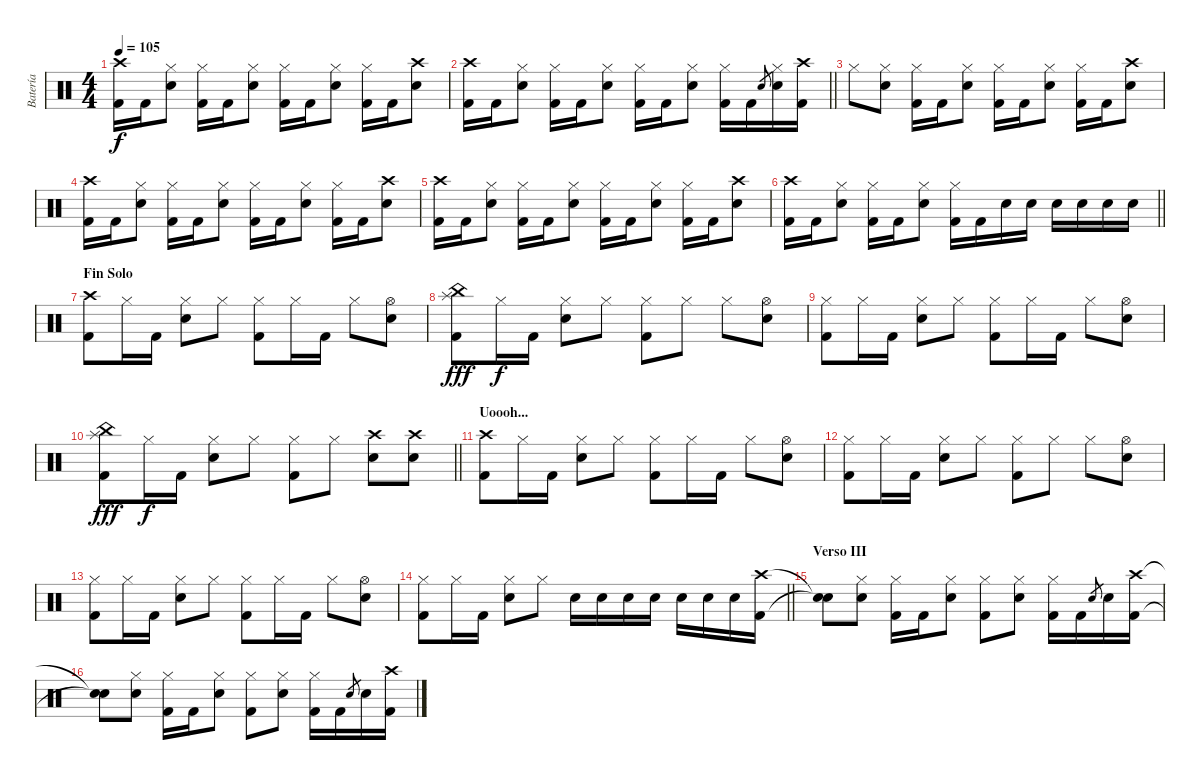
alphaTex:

\track ("Batería" "Batería") {instrument percussion}
\staff {score}
\articulation defaults
\ts (4 4)
\tempo 105
\clef neutral
\ks c
("Crash high (hit)" "Kick (hit) 2").16{dy f} "Kick (hit) 2".16 ("Hi-Hat (closed)" "Snare (hit) 2").8 ("Hi-Hat (closed)" "Kick (hit) 2").16 "Kick (hit) 2".16 ("Hi-Hat (closed)" "Snare (hit) 2").8 ("Hi-Hat (closed)" "Kick (hit) 2").16 "Kick (hit) 2".16 ("Hi-Hat (closed)" "Snare (hit) 2").8 ("Hi-Hat (closed)" "Kick (hit) 2").16 "Kick (hit) 2".16 ("Crash high (hit)" "Snare (hit) 2").8 |
\barLineRight lightlight
("Crash high (hit)" "Kick (hit) 2").16 "Kick (hit) 2".16 ("Hi-Hat (closed)" "Snare (hit) 2").8 ("Hi-Hat (closed)" "Kick (hit) 2").16 "Kick (hit) 2".16 ("Hi-Hat (closed)" "Snare (hit) 2").8 ("Hi-Hat (closed)" "Kick (hit) 2").16 "Kick (hit) 2".16 ("Hi-Hat (closed)" "Snare (hit) 2").8 ("Hi-Hat (closed)" "Kick (hit) 2").16 "Kick (hit) 2".16 "Snare (hit) 2".8{gr} ("Hi-Hat (closed)" "Snare (hit) 2").16 ("Crash high (hit)" "Kick (hit) 2").16 |
"Hi-Hat (closed)".8 ("Hi-Hat (closed)" "Snare (hit) 2").8 ("Hi-Hat (closed)" "Kick (hit) 2").16 "Kick (hit) 2".16 ("Hi-Hat (closed)" "Snare (hit) 2").8 ("Hi-Hat (closed)" "Kick (hit) 2").16 "Kick (hit) 2".16 ("Hi-Hat (closed)" "Snare (hit) 2").8 ("Hi-Hat (closed)" "Kick (hit) 2").16 "Kick (hit) 2".16 ("Crash high (hit)" "Snare (hit) 2").8 |
("Crash high (hit)" "Kick (hit) 2").16 "Kick (hit) 2".16 ("Hi-Hat (closed)" "Snare (hit) 2").8 ("Hi-Hat (closed)" "Kick (hit) 2").16 "Kick (hit) 2".16 ("Hi-Hat (closed)" "Snare (hit) 2").8 ("Hi-Hat (closed)" "Kick (hit) 2").16 "Kick (hit) 2".16 ("Hi-Hat (closed)" "Snare (hit) 2").8 ("Hi-Hat (closed)" "Kick (hit) 2").16 "Kick (hit) 2".16 ("Crash high (hit)" "Snare (hit) 2").8 |
("Crash high (hit)" "Kick (hit) 2").16 "Kick (hit) 2".16 ("Hi-Hat (closed)" "Snare (hit) 2").8 ("Hi-Hat (closed)" "Kick (hit) 2").16 "Kick (hit) 2".16 ("Hi-Hat (closed)" "Snare (hit) 2").8 ("Hi-Hat (closed)" "Kick (hit) 2").16 "Kick (hit) 2".16 ("Hi-Hat (closed)" "Snare (hit) 2").8 ("Hi-Hat (closed)" "Kick (hit) 2").16 "Kick (hit) 2".16 ("Crash high (hit)" "Snare (hit) 2").8 |
\barLineRight lightlight
("Crash high (hit)" "Kick (hit) 2").16 "Kick (hit) 2".16 ("Hi-Hat (closed)" "Snare (hit) 2").8 ("Hi-Hat (closed)" "Kick (hit) 2").16 "Kick (hit) 2".16 ("Hi-Hat (closed)" "Snare (hit) 2").8 ("Hi-Hat (closed)" "Kick (hit) 2").16 "Kick (hit) 2".16 "Snare (hit) 2".16 "Snare (hit) 2".16 "Snare (hit) 2".16 "Snare (hit) 2".16 "Snare (hit) 2".16 "Snare (hit) 2".16 |
\section ("" "Fin Solo")
("Kick (hit) 2" "Crash high (hit)").8 "Hi-Hat (closed)".16 "Kick (hit) 2".16 ("Snare (hit) 2" "Hi-Hat (closed)").8 "Hi-Hat (closed)".8 ("Kick (hit) 2" "Hi-Hat (closed)").8 "Hi-Hat (closed)".16 "Kick (hit) 2".16 "Hi-Hat (closed)".8 ("Snare (hit) 2" "Hi-Hat (open)").8 |
("Kick (hit) 2" "China (hit)" "Splash (hit)").8{dy fff} "Hi-Hat (closed)".16{dy f} "Kick (hit) 2".16 ("Snare (hit) 2" "Hi-Hat (closed)").8 "Hi-Hat (closed)".8 ("Kick (hit) 2" "Hi-Hat (closed)").8 "Hi-Hat (closed)".8 "Hi-Hat (closed)".8 ("Snare (hit) 2" "Hi-Hat (open)").8 |
("Kick (hit) 2" "Hi-Hat (closed)").8 "Hi-Hat (closed)".16 "Kick (hit) 2".16 ("Snare (hit) 2" "Hi-Hat (closed)").8 "Hi-Hat (closed)".8 ("Kick (hit) 2" "Hi-Hat (closed)").8 "Hi-Hat (closed)".16 "Kick (hit) 2".16 "Hi-Hat (closed)".8 ("Snare (hit) 2" "Hi-Hat (open)").8 |
\barLineRight lightlight
("Kick (hit) 2" "China (hit)" "Splash (hit)").8{dy fff} "Hi-Hat (closed)".16{dy f} "Kick (hit) 2".16 ("Snare (hit) 2" "Hi-Hat (closed)").8 "Hi-Hat (closed)".8 ("Hi-Hat (closed)" "Kick (hit) 2").8 "Hi-Hat (closed)".8 ("Snare (hit) 2" "Crash high (hit)").8 ("Snare (hit) 2" "Crash high (hit)").8 |
\section ("" "Uoooh...")
("Kick (hit) 2" "Crash high (hit)").8 "Hi-Hat (closed)".16 "Kick (hit) 2".16 ("Snare (hit) 2" "Hi-Hat (closed)").8 "Hi-Hat (closed)".8 ("Kick (hit) 2" "Hi-Hat (closed)").8 "Hi-Hat (closed)".16 "Kick (hit) 2".16 "Hi-Hat (closed)".8 ("Snare (hit) 2" "Hi-Hat (open)").8 |
("Kick (hit) 2" "Hi-Hat (closed)").8 "Hi-Hat (closed)".16 "Kick (hit) 2".16 ("Snare (hit) 2" "Hi-Hat (closed)").8 "Hi-Hat (closed)".8 ("Kick (hit) 2" "Hi-Hat (closed)").8 "Hi-Hat (closed)".8 "Hi-Hat (closed)".8 ("Snare (hit) 2" "Hi-Hat (open)").8 |
("Kick (hit) 2" "Hi-Hat (closed)").8 "Hi-Hat (closed)".16 "Kick (hit) 2".16 ("Snare (hit) 2" "Hi-Hat (closed)").8 "Hi-Hat (closed)".8 ("Kick (hit) 2" "Hi-Hat (closed)").8 "Hi-Hat (closed)".16 "Kick (hit) 2".16 "Hi-Hat (closed)".8 ("Snare (hit) 2" "Hi-Hat (open)").8 |
\barLineRight lightlight
("Kick (hit) 2" "Hi-Hat (closed)").8 "Hi-Hat (closed)".16 "Kick (hit) 2".16 ("Snare (hit) 2" "Hi-Hat (closed)").8 "Hi-Hat (closed)".8 "Snare (hit) 2".16 "Snare (hit) 2".16 "Snare (hit) 2".16 "Snare (hit) 2".16 "Snare (hit) 2".16 "Snare (hit) 2".16 "Snare (hit) 2".16 ("Kick (hit) 2" "Crash high (hit)").16 |
\section ("" "Verso III")
("Snare (hit)"{t} "Snare (hit)"{t}).8 ("Hi-Hat (closed)" "Snare (hit) 2").8 ("Hi-Hat (closed)" "Kick (hit) 2").16 "Kick (hit) 2".16 ("Hi-Hat (closed)" "Snare (hit) 2").8 ("Hi-Hat (closed)" "Kick (hit) 2").8 ("Hi-Hat (closed)" "Snare (hit) 2").8 ("Hi-Hat (closed)" "Kick (hit) 2").16 "Kick (hit) 2".16 "Snare (hit) 2".8{gr} "Snare (hit) 2".16 ("Kick (hit) 2" "Crash high (hit)").16 |
("Snare (hit)"{t} "Snare (hit)"{t}).8 ("Hi-Hat (closed)" "Snare (hit) 2").8 ("Hi-Hat (closed)" "Kick (hit) 2").16 "Kick (hit) 2".16 ("Hi-Hat (closed)" "Snare (hit) 2").8 ("Hi-Hat (closed)" "Kick (hit) 2").8 ("Hi-Hat (closed)" "Snare (hit) 2").8 ("Hi-Hat (closed)" "Kick (hit) 2").16 "Kick (hit) 2".16 "Snare (hit) 2".8{gr} "Snare (hit) 2".16 ("Kick (hit) 2" "Crash high (hit)").16
